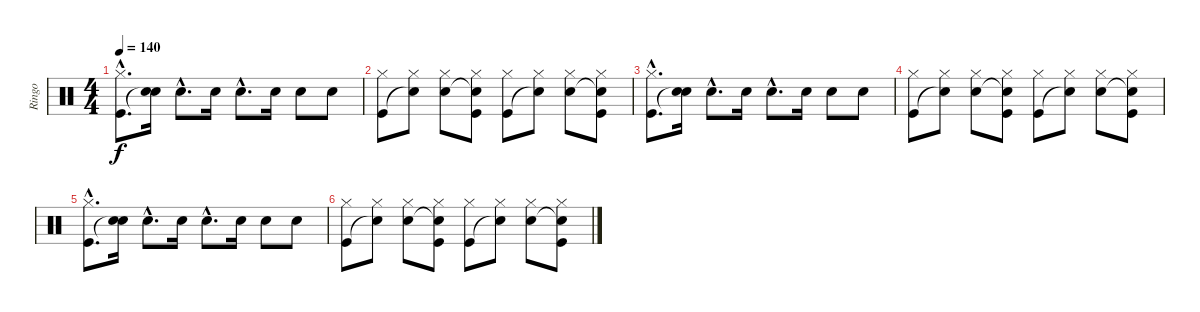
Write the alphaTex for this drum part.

\track ("Ringo" "Ringo") {instrument percussion}
\staff {score}
\articulation defaults
\ts (4 4)
\tempo 140
\clef neutral
\ks c
("Hi-Hat (closed)"{hac} "Kick (hit)"{hac}).8{d dy f volume 7} ("Snare (hit) 2" "Snare (hit)"{t}).16 "Snare (hit) 2"{hac}.8{d} "Snare (hit) 2".16 "Snare (hit) 2"{hac}.8{d} "Snare (hit) 2".16 "Snare (hit) 2".8 "Snare (hit) 2".8 |
("Hi-Hat (closed)" "Kick (hit)").8 ("Hi-Hat (closed)" "Snare (hit)"{t}).8 ("Hi-Hat (closed)" "Snare (hit) 2").8 ("Hi-Hat (closed)" "Snare (hit)"{t} "Kick (hit)").8 ("Hi-Hat (closed)" "Kick (hit)").8 ("Hi-Hat (closed)" "Snare (hit)"{t}).8 ("Hi-Hat (closed)" "Snare (hit) 2").8 ("Hi-Hat (closed)" "Snare (hit)"{t} "Kick (hit)").8 |
("Hi-Hat (closed)"{hac} "Kick (hit)"{hac}).8{d volume 5} ("Snare (hit) 2" "Snare (hit)"{t}).16 "Snare (hit) 2"{hac}.8{d} "Snare (hit) 2".16 "Snare (hit) 2"{hac}.8{d} "Snare (hit) 2".16 "Snare (hit) 2".8 "Snare (hit) 2".8 |
("Hi-Hat (closed)" "Kick (hit)").8 ("Hi-Hat (closed)" "Snare (hit)"{t}).8 ("Hi-Hat (closed)" "Snare (hit) 2").8 ("Hi-Hat (closed)" "Snare (hit)"{t} "Kick (hit)").8 ("Hi-Hat (closed)" "Kick (hit)").8 ("Hi-Hat (closed)" "Snare (hit)"{t}).8 ("Hi-Hat (closed)" "Snare (hit) 2").8 ("Hi-Hat (closed)" "Snare (hit)"{t} "Kick (hit)").8 |
("Hi-Hat (closed)"{hac} "Kick (hit)"{hac}).8{d volume 3} ("Snare (hit) 2" "Snare (hit)"{t}).16 "Snare (hit) 2"{hac}.8{d} "Snare (hit) 2".16 "Snare (hit) 2"{hac}.8{d} "Snare (hit) 2".16 "Snare (hit) 2".8 "Snare (hit) 2".8 |
("Hi-Hat (closed)" "Kick (hit)").8 ("Hi-Hat (closed)" "Snare (hit)"{t}).8 ("Hi-Hat (closed)" "Snare (hit) 2").8 ("Hi-Hat (closed)" "Snare (hit)"{t} "Kick (hit)").8 ("Hi-Hat (closed)" "Kick (hit)").8 ("Hi-Hat (closed)" "Snare (hit)"{t}).8 ("Hi-Hat (closed)" "Snare (hit) 2").8 ("Hi-Hat (closed)" "Snare (hit)"{t} "Kick (hit)").8
